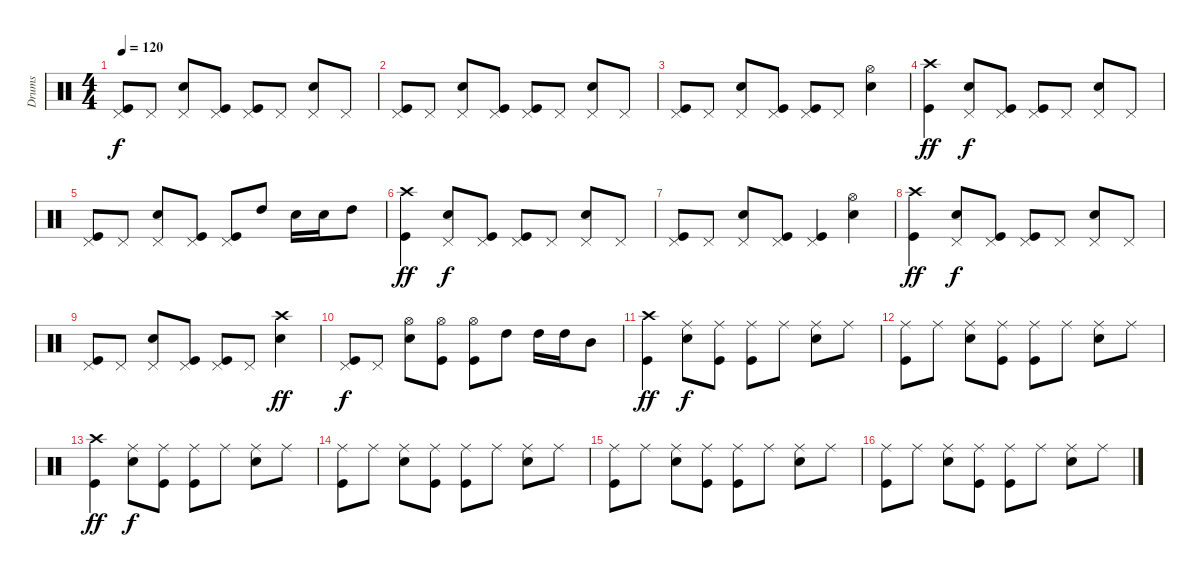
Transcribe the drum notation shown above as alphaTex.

\track ("Drums" "Drums") {instrument percussion}
\staff {score}
\articulation defaults
\ts (4 4)
\tempo 120
\clef neutral
\ks c
("Kick (hit)" "Pedal Hi-Hat (hit)").8{dy f} "Pedal Hi-Hat (hit)".8 ("Snare (hit) 2" "Pedal Hi-Hat (hit)").8 ("Kick (hit)" "Pedal Hi-Hat (hit)").8 ("Kick (hit)" "Pedal Hi-Hat (hit)").8 "Pedal Hi-Hat (hit)".8 ("Snare (hit) 2" "Pedal Hi-Hat (hit)").8 "Pedal Hi-Hat (hit)".8 |
("Kick (hit)" "Pedal Hi-Hat (hit)").8 "Pedal Hi-Hat (hit)".8 ("Snare (hit) 2" "Pedal Hi-Hat (hit)").8 ("Kick (hit)" "Pedal Hi-Hat (hit)").8 ("Kick (hit)" "Pedal Hi-Hat (hit)").8 "Pedal Hi-Hat (hit)".8 ("Snare (hit) 2" "Pedal Hi-Hat (hit)").8 "Pedal Hi-Hat (hit)".8 |
("Kick (hit)" "Pedal Hi-Hat (hit)").8 "Pedal Hi-Hat (hit)".8 ("Snare (hit) 2" "Pedal Hi-Hat (hit)").8 ("Kick (hit)" "Pedal Hi-Hat (hit)").8 ("Kick (hit)" "Pedal Hi-Hat (hit)").8 "Pedal Hi-Hat (hit)".8 ("Snare (hit) 2" "Hi-Hat (open)").4 |
("Kick (hit)" "Crash high (hit)").4{dy ff} ("Snare (hit) 2" "Pedal Hi-Hat (hit)").8{dy f} ("Kick (hit)" "Pedal Hi-Hat (hit)").8 ("Kick (hit)" "Pedal Hi-Hat (hit)").8 "Pedal Hi-Hat (hit)".8 ("Snare (hit) 2" "Pedal Hi-Hat (hit)").8 "Pedal Hi-Hat (hit)".8 |
("Kick (hit)" "Pedal Hi-Hat (hit)").8 "Pedal Hi-Hat (hit)".8 ("Snare (hit) 2" "Pedal Hi-Hat (hit)").8 ("Kick (hit)" "Pedal Hi-Hat (hit)").8 ("Kick (hit)" "Pedal Hi-Hat (hit)").8 "High Tom (hit)".8 "Snare (hit) 2".16 "Snare (hit) 2".16 "High Tom (hit)".8 |
("Kick (hit)" "Crash high (hit)").4{dy ff} ("Snare (hit) 2" "Pedal Hi-Hat (hit)").8{dy f} ("Kick (hit)" "Pedal Hi-Hat (hit)").8 ("Kick (hit)" "Pedal Hi-Hat (hit)").8 "Pedal Hi-Hat (hit)".8 ("Snare (hit) 2" "Pedal Hi-Hat (hit)").8 "Pedal Hi-Hat (hit)".8 |
("Kick (hit)" "Pedal Hi-Hat (hit)").8 "Pedal Hi-Hat (hit)".8 ("Snare (hit) 2" "Pedal Hi-Hat (hit)").8 ("Kick (hit)" "Pedal Hi-Hat (hit)").8 ("Kick (hit)" "Pedal Hi-Hat (hit)").4 ("Snare (hit) 2" "Hi-Hat (open)").4 |
("Kick (hit)" "Crash high (hit)").4{dy ff} ("Snare (hit) 2" "Pedal Hi-Hat (hit)").8{dy f} ("Kick (hit)" "Pedal Hi-Hat (hit)").8 ("Kick (hit)" "Pedal Hi-Hat (hit)").8 "Pedal Hi-Hat (hit)".8 ("Snare (hit) 2" "Pedal Hi-Hat (hit)").8 "Pedal Hi-Hat (hit)".8 |
("Kick (hit)" "Pedal Hi-Hat (hit)").8 "Pedal Hi-Hat (hit)".8 ("Snare (hit) 2" "Pedal Hi-Hat (hit)").8 ("Kick (hit)" "Pedal Hi-Hat (hit)").8 ("Kick (hit)" "Pedal Hi-Hat (hit)").8 "Pedal Hi-Hat (hit)".8 ("Snare (hit) 2" "Crash high (hit)").4{dy ff} |
("Kick (hit)" "Pedal Hi-Hat (hit)").8{dy f} "Pedal Hi-Hat (hit)".8 ("Snare (hit) 2" "Hi-Hat (open)").8 ("Kick (hit)" "Hi-Hat (open)").8 ("Kick (hit)" "Hi-Hat (open)").8 "High Tom (hit)".8 "High Tom (hit)".16 "High Tom (hit)".16 "Mid Tom (hit)".8 |
("Kick (hit)" "Crash high (hit)").4{dy ff} ("Snare (hit) 2" "Ride (middle)").8{dy f} ("Kick (hit)" "Ride (middle)").8 ("Kick (hit)" "Ride (middle)").8 "Ride (middle)".8 ("Snare (hit) 2" "Ride (middle)").8 "Ride (middle)".8 |
("Kick (hit)" "Ride (middle)").8 "Ride (middle)".8 ("Snare (hit) 2" "Ride (middle)").8 ("Kick (hit)" "Ride (middle)").8 ("Kick (hit)" "Ride (middle)").8 "Ride (middle)".8 ("Snare (hit) 2" "Ride (middle)").8 "Ride (middle)".8 |
("Kick (hit)" "Crash high (hit)").4{dy ff} ("Snare (hit) 2" "Ride (middle)").8{dy f} ("Kick (hit)" "Ride (middle)").8 ("Kick (hit)" "Ride (middle)").8 "Ride (middle)".8 ("Snare (hit) 2" "Ride (middle)").8 "Ride (middle)".8 |
("Kick (hit)" "Ride (middle)").8 "Ride (middle)".8 ("Snare (hit) 2" "Ride (middle)").8 ("Kick (hit)" "Ride (middle)").8 ("Kick (hit)" "Ride (middle)").8 "Ride (middle)".8 ("Snare (hit) 2" "Ride (middle)").8 "Ride (middle)".8 |
("Kick (hit)" "Ride (middle)").8 "Ride (middle)".8 ("Snare (hit) 2" "Ride (middle)").8 ("Kick (hit)" "Ride (middle)").8 ("Kick (hit)" "Ride (middle)").8 "Ride (middle)".8 ("Snare (hit) 2" "Ride (middle)").8 "Ride (middle)".8 |
("Kick (hit)" "Ride (middle)").8 "Ride (middle)".8 ("Snare (hit) 2" "Ride (middle)").8 ("Kick (hit)" "Ride (middle)").8 ("Kick (hit)" "Ride (middle)").8 "Ride (middle)".8 ("Snare (hit) 2" "Ride (middle)").8 "Ride (middle)".8
